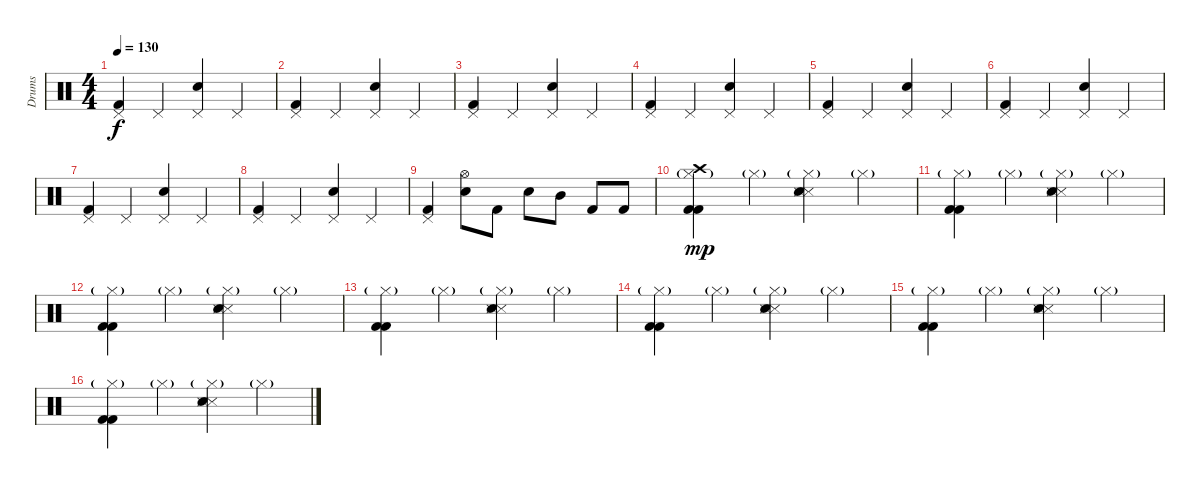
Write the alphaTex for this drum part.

\track ("Drums" "Drums") {instrument percussion}
\staff {score}
\articulation defaults
\ts (4 4)
\tempo 130
\clef neutral
\ks c
("Pedal Hi-Hat (hit)" "Kick (hit) 2").4{dy f} "Pedal Hi-Hat (hit)".4 ("Pedal Hi-Hat (hit)" "Snare (hit) 2").4 "Pedal Hi-Hat (hit)".4 |
("Pedal Hi-Hat (hit)" "Kick (hit) 2").4 "Pedal Hi-Hat (hit)".4 ("Pedal Hi-Hat (hit)" "Snare (hit) 2").4 "Pedal Hi-Hat (hit)".4 |
("Pedal Hi-Hat (hit)" "Kick (hit) 2").4 "Pedal Hi-Hat (hit)".4 ("Pedal Hi-Hat (hit)" "Snare (hit) 2").4 "Pedal Hi-Hat (hit)".4 |
("Pedal Hi-Hat (hit)" "Kick (hit) 2").4 "Pedal Hi-Hat (hit)".4 ("Pedal Hi-Hat (hit)" "Snare (hit) 2").4 "Pedal Hi-Hat (hit)".4 |
("Pedal Hi-Hat (hit)" "Kick (hit) 2").4 "Pedal Hi-Hat (hit)".4 ("Pedal Hi-Hat (hit)" "Snare (hit) 2").4 "Pedal Hi-Hat (hit)".4 |
("Pedal Hi-Hat (hit)" "Kick (hit) 2").4 "Pedal Hi-Hat (hit)".4 ("Pedal Hi-Hat (hit)" "Snare (hit) 2").4 "Pedal Hi-Hat (hit)".4 |
("Pedal Hi-Hat (hit)" "Kick (hit) 2").4 "Pedal Hi-Hat (hit)".4 ("Pedal Hi-Hat (hit)" "Snare (hit) 2").4 "Pedal Hi-Hat (hit)".4 |
("Pedal Hi-Hat (hit)" "Kick (hit) 2").4 "Pedal Hi-Hat (hit)".4 ("Pedal Hi-Hat (hit)" "Snare (hit) 2").4 "Pedal Hi-Hat (hit)".4 |
("Pedal Hi-Hat (hit)" "Kick (hit) 2").4 ("Snare (hit) 2" "Hi-Hat (open)").8 "Kick (hit) 2".8 "Snare (hit) 2".8 "Mid Tom (hit)".8 "Kick (hit) 2".8 "Kick (hit) 2".8 |
("Kick (hit) 2" "Kick (hit) 2" "Crash high (hit)" "Hi-Hat (closed)"{g}).4{dy mp} "Hi-Hat (closed)"{g}.4 ("Snare (side stick) 3" "Snare (side stick) 3" "Snare (hit)" "Hi-Hat (closed)"{g}).4 "Hi-Hat (closed)"{g}.4 |
("Kick (hit) 2" "Kick (hit) 2" "Hi-Hat (closed)"{g}).4 "Hi-Hat (closed)"{g}.4 ("Snare (side stick) 3" "Snare (side stick) 3" "Snare (hit)" "Hi-Hat (closed)"{g}).4 "Hi-Hat (closed)"{g}.4 |
("Kick (hit) 2" "Kick (hit) 2" "Hi-Hat (closed)"{g}).4 "Hi-Hat (closed)"{g}.4 ("Snare (side stick) 3" "Snare (side stick) 3" "Snare (hit)" "Hi-Hat (closed)"{g}).4 "Hi-Hat (closed)"{g}.4 |
("Kick (hit) 2" "Kick (hit) 2" "Hi-Hat (closed)"{g}).4 "Hi-Hat (closed)"{g}.4 ("Snare (side stick) 3" "Snare (side stick) 3" "Snare (hit)" "Hi-Hat (closed)"{g}).4 "Hi-Hat (closed)"{g}.4 |
("Kick (hit) 2" "Kick (hit) 2" "Hi-Hat (closed)"{g}).4 "Hi-Hat (closed)"{g}.4 ("Snare (side stick) 3" "Snare (side stick) 3" "Snare (hit)" "Hi-Hat (closed)"{g}).4 "Hi-Hat (closed)"{g}.4 |
("Kick (hit) 2" "Kick (hit) 2" "Hi-Hat (closed)"{g}).4 "Hi-Hat (closed)"{g}.4 ("Snare (side stick) 3" "Snare (side stick) 3" "Snare (hit)" "Hi-Hat (closed)"{g}).4 "Hi-Hat (closed)"{g}.4 |
("Kick (hit) 2" "Kick (hit) 2" "Hi-Hat (closed)"{g}).4 "Hi-Hat (closed)"{g}.4 ("Snare (side stick) 3" "Snare (side stick) 3" "Snare (hit)" "Hi-Hat (closed)"{g}).4 "Hi-Hat (closed)"{g}.4
